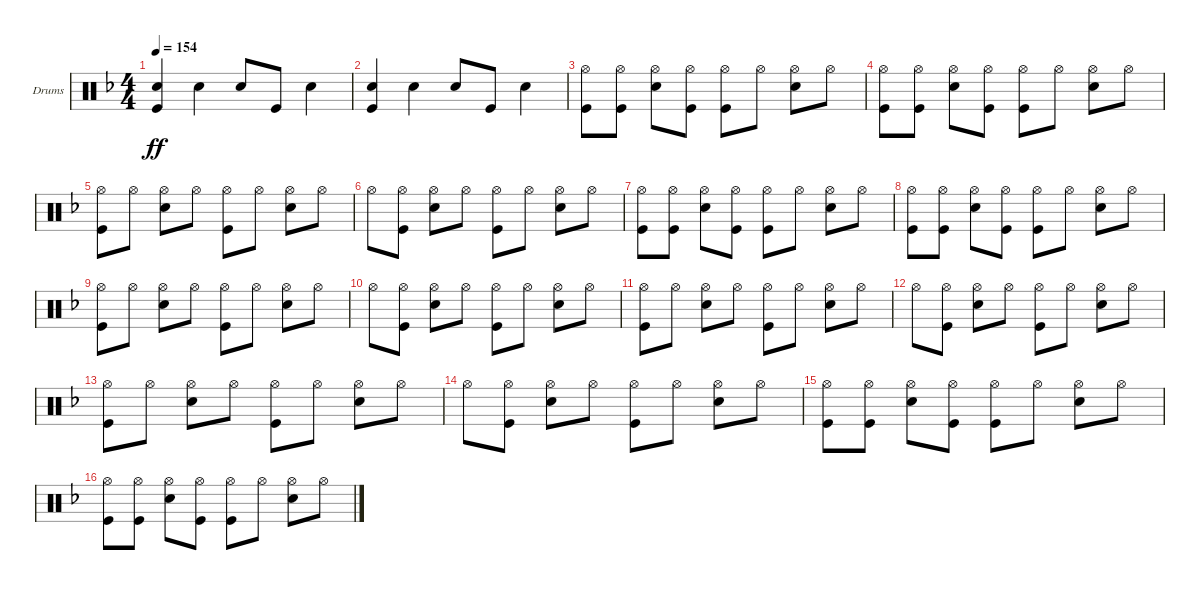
\bracketExtendMode groupsimilarinstruments
\firstSystemTrackNameOrientation horizontal
\otherSystemsTrackNameOrientation horizontal
\track ("Fabrizio Moretti" "Drums") {instrument percussion}
\staff {score}
\articulation defaults
\ts (4 4)
\tempo 154
\clef neutral
\ks f
("Snare (hit) 2" "Kick (hit)").4{dy ff} "Snare (hit) 2".4 "Snare (hit) 2".8 "Kick (hit)".8 "Snare (hit) 2".4 |
("Snare (hit) 2" "Kick (hit)").4 "Snare (hit) 2".4 "Snare (hit) 2".8 "Kick (hit)".8 "Snare (hit) 2".4 |
("Hi-Hat (open)" "Kick (hit)").8 ("Hi-Hat (open)" "Kick (hit)").8 ("Hi-Hat (open)" "Snare (hit) 2").8 ("Hi-Hat (open)" "Kick (hit)").8 ("Hi-Hat (open)" "Kick (hit)").8 "Hi-Hat (open)".8 ("Hi-Hat (open)" "Snare (hit) 2").8 "Hi-Hat (open)".8 |
("Hi-Hat (open)" "Kick (hit)").8 ("Hi-Hat (open)" "Kick (hit)").8 ("Hi-Hat (open)" "Snare (hit) 2").8 ("Hi-Hat (open)" "Kick (hit)").8 ("Hi-Hat (open)" "Kick (hit)").8 "Hi-Hat (open)".8 ("Hi-Hat (open)" "Snare (hit) 2").8 "Hi-Hat (open)".8 |
("Hi-Hat (open)" "Kick (hit)").8 "Hi-Hat (open)".8 ("Hi-Hat (open)" "Snare (hit) 2").8 "Hi-Hat (open)".8 ("Hi-Hat (open)" "Kick (hit)").8 "Hi-Hat (open)".8 ("Hi-Hat (open)" "Snare (hit) 2").8 "Hi-Hat (open)".8 |
"Hi-Hat (open)".8 ("Hi-Hat (open)" "Kick (hit)").8 ("Hi-Hat (open)" "Snare (hit) 2").8 "Hi-Hat (open)".8 ("Hi-Hat (open)" "Kick (hit)").8 "Hi-Hat (open)".8 ("Hi-Hat (open)" "Snare (hit) 2").8 "Hi-Hat (open)".8 |
("Hi-Hat (open)" "Kick (hit)").8 ("Hi-Hat (open)" "Kick (hit)").8 ("Hi-Hat (open)" "Snare (hit) 2").8 ("Hi-Hat (open)" "Kick (hit)").8 ("Hi-Hat (open)" "Kick (hit)").8 "Hi-Hat (open)".8 ("Hi-Hat (open)" "Snare (hit) 2").8 "Hi-Hat (open)".8 |
("Hi-Hat (open)" "Kick (hit)").8 ("Hi-Hat (open)" "Kick (hit)").8 ("Hi-Hat (open)" "Snare (hit) 2").8 ("Hi-Hat (open)" "Kick (hit)").8 ("Hi-Hat (open)" "Kick (hit)").8 "Hi-Hat (open)".8 ("Hi-Hat (open)" "Snare (hit) 2").8 "Hi-Hat (open)".8 |
("Hi-Hat (open)" "Kick (hit)").8 "Hi-Hat (open)".8 ("Hi-Hat (open)" "Snare (hit) 2").8 "Hi-Hat (open)".8 ("Hi-Hat (open)" "Kick (hit)").8 "Hi-Hat (open)".8 ("Hi-Hat (open)" "Snare (hit) 2").8 "Hi-Hat (open)".8 |
"Hi-Hat (open)".8 ("Hi-Hat (open)" "Kick (hit)").8 ("Hi-Hat (open)" "Snare (hit) 2").8 "Hi-Hat (open)".8 ("Hi-Hat (open)" "Kick (hit)").8 "Hi-Hat (open)".8 ("Hi-Hat (open)" "Snare (hit) 2").8 "Hi-Hat (open)".8 |
("Hi-Hat (open)" "Kick (hit)").8 "Hi-Hat (open)".8 ("Hi-Hat (open)" "Snare (hit) 2").8 "Hi-Hat (open)".8 ("Hi-Hat (open)" "Kick (hit)").8 "Hi-Hat (open)".8 ("Hi-Hat (open)" "Snare (hit) 2").8 "Hi-Hat (open)".8 |
"Hi-Hat (open)".8 ("Hi-Hat (open)" "Kick (hit)").8 ("Hi-Hat (open)" "Snare (hit) 2").8 "Hi-Hat (open)".8 ("Hi-Hat (open)" "Kick (hit)").8 "Hi-Hat (open)".8 ("Hi-Hat (open)" "Snare (hit) 2").8 "Hi-Hat (open)".8 |
("Hi-Hat (open)" "Kick (hit)").8 "Hi-Hat (open)".8 ("Hi-Hat (open)" "Snare (hit) 2").8 "Hi-Hat (open)".8 ("Hi-Hat (open)" "Kick (hit)").8 "Hi-Hat (open)".8 ("Hi-Hat (open)" "Snare (hit) 2").8 "Hi-Hat (open)".8 |
"Hi-Hat (open)".8 ("Hi-Hat (open)" "Kick (hit)").8 ("Hi-Hat (open)" "Snare (hit) 2").8 "Hi-Hat (open)".8 ("Hi-Hat (open)" "Kick (hit)").8 "Hi-Hat (open)".8 ("Hi-Hat (open)" "Snare (hit) 2").8 "Hi-Hat (open)".8 |
("Hi-Hat (open)" "Kick (hit)").8 ("Hi-Hat (open)" "Kick (hit)").8 ("Hi-Hat (open)" "Snare (hit) 2").8 ("Hi-Hat (open)" "Kick (hit)").8 ("Hi-Hat (open)" "Kick (hit)").8 "Hi-Hat (open)".8 ("Hi-Hat (open)" "Snare (hit) 2").8 "Hi-Hat (open)".8 |
("Hi-Hat (open)" "Kick (hit)").8 ("Hi-Hat (open)" "Kick (hit)").8 ("Hi-Hat (open)" "Snare (hit) 2").8 ("Hi-Hat (open)" "Kick (hit)").8 ("Hi-Hat (open)" "Kick (hit)").8 "Hi-Hat (open)".8 ("Hi-Hat (open)" "Snare (hit) 2").8 "Hi-Hat (open)".8
